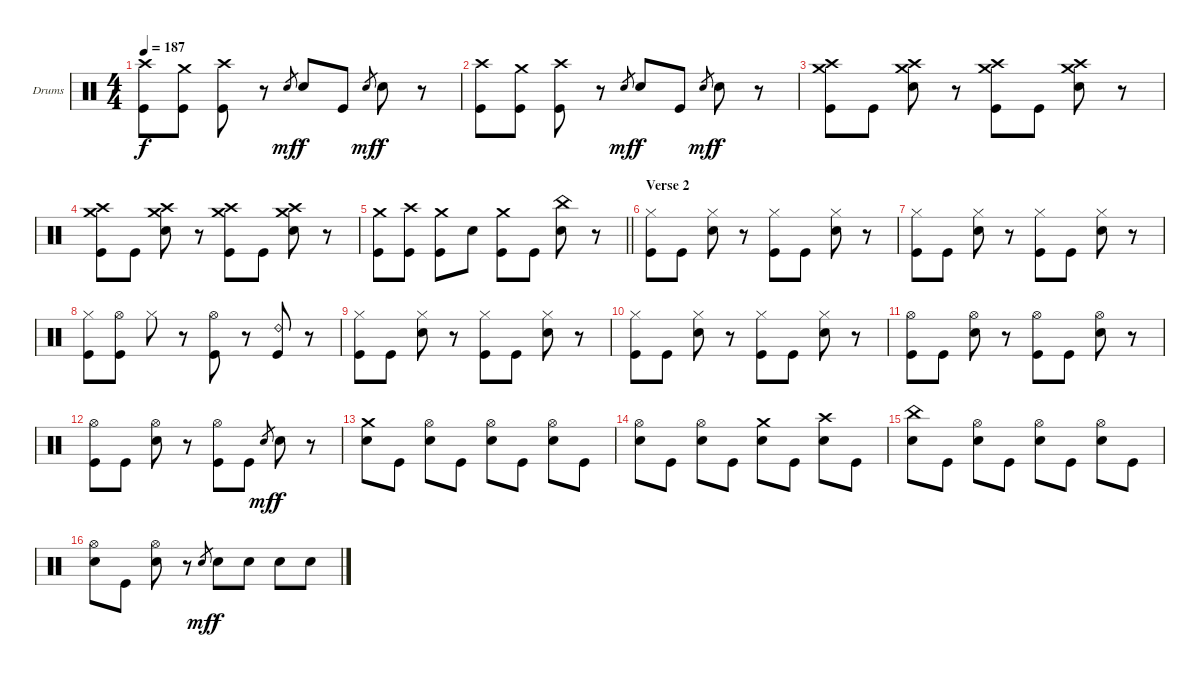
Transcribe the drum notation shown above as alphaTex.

\bracketExtendMode groupsimilarinstruments
\firstSystemTrackNameOrientation horizontal
\otherSystemsTrackNameOrientation horizontal
\track ("Rian Dawson" "Drums") {instrument percussion}
\staff {score}
\articulation defaults
\ts (4 4)
\tempo 187
\clef neutral
\ks c
("Crash high (hit)" "Kick (hit)").8{dy f} ("Crash medium (hit)" "Kick (hit)").8 ("Crash high (hit)" "Kick (hit)").8 r.8 "Snare (hit) 2".8{gr dy mf} "Snare (hit) 2".8{dy f} "Kick (hit)".8 "Snare (hit) 2".8{gr dy mf} "Snare (hit) 2".8{dy f} r.8 |
("Crash high (hit)" "Kick (hit)").8 ("Crash medium (hit)" "Kick (hit)").8 ("Crash high (hit)" "Kick (hit)").8 r.8 "Snare (hit) 2".8{gr dy mf} "Snare (hit) 2".8{dy f} "Kick (hit)".8 "Snare (hit) 2".8{gr dy mf} "Snare (hit) 2".8{dy f} r.8 |
("Crash medium (hit)" "Crash high (hit)" "Kick (hit)").8 "Kick (hit)".8 ("Crash medium (hit)" "Crash high (hit)" "Snare (hit) 2").8 r.8 ("Crash medium (hit)" "Crash high (hit)" "Kick (hit)").8 "Kick (hit)".8 ("Crash medium (hit)" "Crash high (hit)" "Snare (hit) 2").8 r.8 |
("Crash medium (hit)" "Crash high (hit)" "Kick (hit)").8 "Kick (hit)".8 ("Crash medium (hit)" "Crash high (hit)" "Snare (hit) 2").8 r.8 ("Crash medium (hit)" "Crash high (hit)" "Kick (hit)").8 "Kick (hit)".8 ("Crash medium (hit)" "Crash high (hit)" "Snare (hit) 2").8 r.8 |
\barLineRight lightlight
("Crash medium (hit)" "Kick (hit)").8 ("Crash high (hit)" "Kick (hit)").8 ("Crash medium (hit)" "Kick (hit)").8 "Snare (hit) 2".8 ("Crash medium (hit)" "Kick (hit)").8 "Kick (hit)".8 ("China (hit)" "Snare (hit) 2").8 r.8 |
\section ("" "Verse 2")
("Hi-Hat (closed)" "Kick (hit)").8 "Kick (hit)".8 ("Hi-Hat (closed)" "Snare (hit) 2").8 r.8 ("Hi-Hat (closed)" "Kick (hit)").8 "Kick (hit)".8 ("Hi-Hat (closed)" "Snare (hit) 2").8 r.8 |
("Hi-Hat (closed)" "Kick (hit)").8 "Kick (hit)".8 ("Hi-Hat (closed)" "Snare (hit) 2").8 r.8 ("Hi-Hat (closed)" "Kick (hit)").8 "Kick (hit)".8 ("Hi-Hat (closed)" "Snare (hit) 2").8 r.8 |
("Hi-Hat (closed)" "Kick (hit)").8 ("Hi-Hat (open)" "Kick (hit)").8 "Hi-Hat (closed)".8 r.8 ("Hi-Hat (open)" "Kick (hit)").8 r.8 ("Ride (bell) 2" "Kick (hit)").8 r.8 |
("Hi-Hat (closed)" "Kick (hit)").8 "Kick (hit)".8 ("Hi-Hat (closed)" "Snare (hit) 2").8 r.8 ("Hi-Hat (closed)" "Kick (hit)").8 "Kick (hit)".8 ("Hi-Hat (closed)" "Snare (hit) 2").8 r.8 |
("Hi-Hat (closed)" "Kick (hit)").8 "Kick (hit)".8 ("Hi-Hat (closed)" "Snare (hit) 2").8 r.8 ("Hi-Hat (closed)" "Kick (hit)").8 "Kick (hit)".8 ("Hi-Hat (closed)" "Snare (hit) 2").8 r.8 |
("Hi-Hat (open)" "Kick (hit)").8 "Kick (hit)".8 ("Hi-Hat (open)" "Snare (hit) 2").8 r.8 ("Hi-Hat (open)" "Kick (hit)").8 "Kick (hit)".8 ("Hi-Hat (open)" "Snare (hit) 2").8 r.8 |
("Hi-Hat (open)" "Kick (hit)").8 "Kick (hit)".8 ("Hi-Hat (open)" "Snare (hit) 2").8 r.8 ("Hi-Hat (open)" "Kick (hit)").8 "Kick (hit)".8 "Snare (hit) 2".8{gr dy mf} "Snare (hit) 2".8{dy f} r.8 |
("Crash medium (hit)" "Snare (hit) 2").8 "Kick (hit)".8 ("Hi-Hat (open)" "Snare (hit) 2").8 "Kick (hit)".8 ("Hi-Hat (open)" "Snare (hit) 2").8 "Kick (hit)".8 ("Hi-Hat (open)" "Snare (hit) 2").8 "Kick (hit)".8 |
("Hi-Hat (open)" "Snare (hit) 2").8 "Kick (hit)".8 ("Hi-Hat (open)" "Snare (hit) 2").8 "Kick (hit)".8 ("Crash medium (hit)" "Snare (hit) 2").8 "Kick (hit)".8 ("Crash high (hit)" "Snare (hit) 2").8 "Kick (hit)".8 |
("China (hit)" "Snare (hit) 2").8 "Kick (hit)".8 ("Hi-Hat (open)" "Snare (hit) 2").8 "Kick (hit)".8 ("Hi-Hat (open)" "Snare (hit) 2").8 "Kick (hit)".8 ("Hi-Hat (open)" "Snare (hit) 2").8 "Kick (hit)".8 |
("Hi-Hat (open)" "Snare (hit) 2").8 "Kick (hit)".8 ("Hi-Hat (open)" "Snare (hit) 2").8 r.8 "Snare (hit) 2".8{gr dy mf} "Snare (hit) 2".8{dy f} "Snare (hit) 2".8 "Snare (hit) 2".8 "Snare (hit) 2".8
